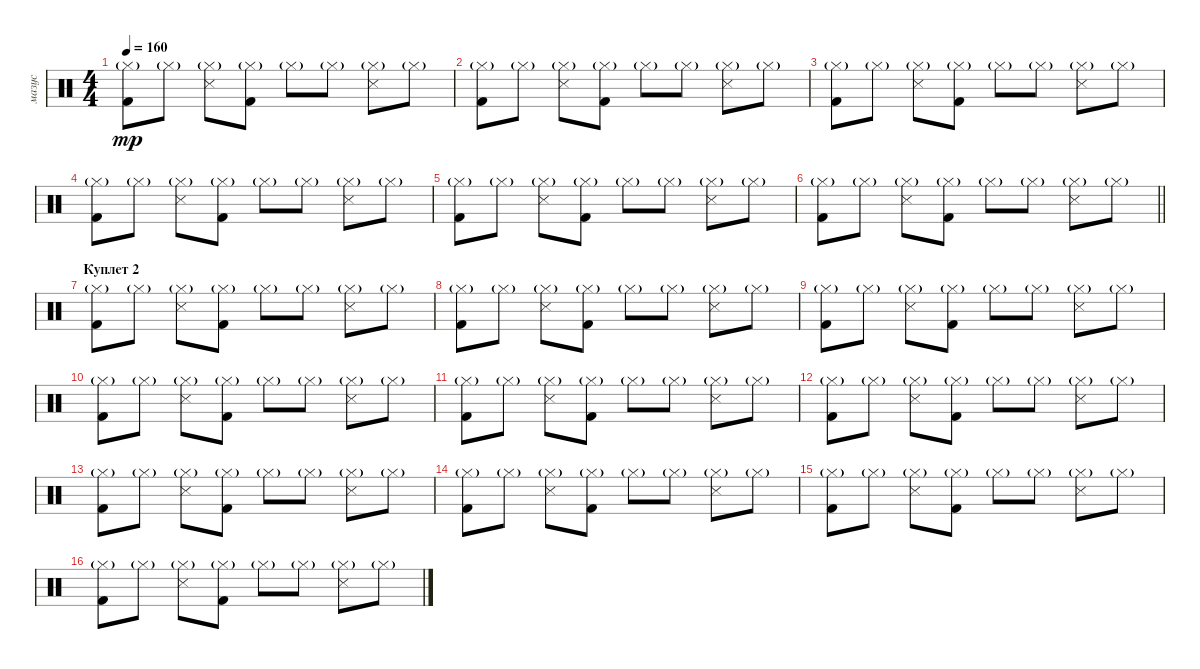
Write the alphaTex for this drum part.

\track ("мазус" "мазус") {instrument percussion}
\staff {score}
\articulation defaults
\ts (4 4)
\tempo 160
\clef neutral
\ks c
("Kick (hit) 2" "Hi-Hat (closed)"{g}).8{dy mp} "Hi-Hat (closed)"{g}.8 ("Snare (side stick) 3" "Hi-Hat (closed)"{g}).8 ("Kick (hit) 2" "Hi-Hat (closed)"{g}).8 "Hi-Hat (closed)"{g}.8 "Hi-Hat (closed)"{g}.8 ("Snare (side stick) 3" "Hi-Hat (closed)"{g}).8 "Hi-Hat (closed)"{g}.8 |
("Kick (hit) 2" "Hi-Hat (closed)"{g}).8 "Hi-Hat (closed)"{g}.8 ("Snare (side stick) 3" "Hi-Hat (closed)"{g}).8 ("Kick (hit) 2" "Hi-Hat (closed)"{g}).8 "Hi-Hat (closed)"{g}.8 "Hi-Hat (closed)"{g}.8 ("Snare (side stick) 3" "Hi-Hat (closed)"{g}).8 "Hi-Hat (closed)"{g}.8 |
("Kick (hit) 2" "Hi-Hat (closed)"{g}).8 "Hi-Hat (closed)"{g}.8 ("Snare (side stick) 3" "Hi-Hat (closed)"{g}).8 ("Kick (hit) 2" "Hi-Hat (closed)"{g}).8 "Hi-Hat (closed)"{g}.8 "Hi-Hat (closed)"{g}.8 ("Snare (side stick) 3" "Hi-Hat (closed)"{g}).8 "Hi-Hat (closed)"{g}.8 |
("Kick (hit) 2" "Hi-Hat (closed)"{g}).8 "Hi-Hat (closed)"{g}.8 ("Snare (side stick) 3" "Hi-Hat (closed)"{g}).8 ("Kick (hit) 2" "Hi-Hat (closed)"{g}).8 "Hi-Hat (closed)"{g}.8 "Hi-Hat (closed)"{g}.8 ("Snare (side stick) 3" "Hi-Hat (closed)"{g}).8 "Hi-Hat (closed)"{g}.8 |
("Kick (hit) 2" "Hi-Hat (closed)"{g}).8 "Hi-Hat (closed)"{g}.8 ("Snare (side stick) 3" "Hi-Hat (closed)"{g}).8 ("Kick (hit) 2" "Hi-Hat (closed)"{g}).8 "Hi-Hat (closed)"{g}.8 "Hi-Hat (closed)"{g}.8 ("Snare (side stick) 3" "Hi-Hat (closed)"{g}).8 "Hi-Hat (closed)"{g}.8 |
\barLineRight lightlight
("Kick (hit) 2" "Hi-Hat (closed)"{g}).8 "Hi-Hat (closed)"{g}.8 ("Snare (side stick) 3" "Hi-Hat (closed)"{g}).8 ("Kick (hit) 2" "Hi-Hat (closed)"{g}).8 "Hi-Hat (closed)"{g}.8 "Hi-Hat (closed)"{g}.8 ("Snare (side stick) 3" "Hi-Hat (closed)"{g}).8 "Hi-Hat (closed)"{g}.8 |
\section ("" "Куплет 2")
("Kick (hit) 2" "Hi-Hat (closed)"{g}).8 "Hi-Hat (closed)"{g}.8 ("Snare (side stick) 3" "Hi-Hat (closed)"{g}).8 ("Kick (hit) 2" "Hi-Hat (closed)"{g}).8 "Hi-Hat (closed)"{g}.8 "Hi-Hat (closed)"{g}.8 ("Snare (side stick) 3" "Hi-Hat (closed)"{g}).8 "Hi-Hat (closed)"{g}.8 |
("Kick (hit) 2" "Hi-Hat (closed)"{g}).8 "Hi-Hat (closed)"{g}.8 ("Snare (side stick) 3" "Hi-Hat (closed)"{g}).8 ("Kick (hit) 2" "Hi-Hat (closed)"{g}).8 "Hi-Hat (closed)"{g}.8 "Hi-Hat (closed)"{g}.8 ("Snare (side stick) 3" "Hi-Hat (closed)"{g}).8 "Hi-Hat (closed)"{g}.8 |
("Kick (hit) 2" "Hi-Hat (closed)"{g}).8 "Hi-Hat (closed)"{g}.8 ("Snare (side stick) 3" "Hi-Hat (closed)"{g}).8 ("Kick (hit) 2" "Hi-Hat (closed)"{g}).8 "Hi-Hat (closed)"{g}.8 "Hi-Hat (closed)"{g}.8 ("Snare (side stick) 3" "Hi-Hat (closed)"{g}).8 "Hi-Hat (closed)"{g}.8 |
("Kick (hit) 2" "Hi-Hat (closed)"{g}).8 "Hi-Hat (closed)"{g}.8 ("Snare (side stick) 3" "Hi-Hat (closed)"{g}).8 ("Kick (hit) 2" "Hi-Hat (closed)"{g}).8 "Hi-Hat (closed)"{g}.8 "Hi-Hat (closed)"{g}.8 ("Snare (side stick) 3" "Hi-Hat (closed)"{g}).8 "Hi-Hat (closed)"{g}.8 |
("Kick (hit) 2" "Hi-Hat (closed)"{g}).8 "Hi-Hat (closed)"{g}.8 ("Snare (side stick) 3" "Hi-Hat (closed)"{g}).8 ("Kick (hit) 2" "Hi-Hat (closed)"{g}).8 "Hi-Hat (closed)"{g}.8 "Hi-Hat (closed)"{g}.8 ("Snare (side stick) 3" "Hi-Hat (closed)"{g}).8 "Hi-Hat (closed)"{g}.8 |
("Kick (hit) 2" "Hi-Hat (closed)"{g}).8 "Hi-Hat (closed)"{g}.8 ("Snare (side stick) 3" "Hi-Hat (closed)"{g}).8 ("Kick (hit) 2" "Hi-Hat (closed)"{g}).8 "Hi-Hat (closed)"{g}.8 "Hi-Hat (closed)"{g}.8 ("Snare (side stick) 3" "Hi-Hat (closed)"{g}).8 "Hi-Hat (closed)"{g}.8 |
("Kick (hit) 2" "Hi-Hat (closed)"{g}).8 "Hi-Hat (closed)"{g}.8 ("Snare (side stick) 3" "Hi-Hat (closed)"{g}).8 ("Kick (hit) 2" "Hi-Hat (closed)"{g}).8 "Hi-Hat (closed)"{g}.8 "Hi-Hat (closed)"{g}.8 ("Snare (side stick) 3" "Hi-Hat (closed)"{g}).8 "Hi-Hat (closed)"{g}.8 |
("Kick (hit) 2" "Hi-Hat (closed)"{g}).8 "Hi-Hat (closed)"{g}.8 ("Snare (side stick) 3" "Hi-Hat (closed)"{g}).8 ("Kick (hit) 2" "Hi-Hat (closed)"{g}).8 "Hi-Hat (closed)"{g}.8 "Hi-Hat (closed)"{g}.8 ("Snare (side stick) 3" "Hi-Hat (closed)"{g}).8 "Hi-Hat (closed)"{g}.8 |
("Kick (hit) 2" "Hi-Hat (closed)"{g}).8 "Hi-Hat (closed)"{g}.8 ("Snare (side stick) 3" "Hi-Hat (closed)"{g}).8 ("Kick (hit) 2" "Hi-Hat (closed)"{g}).8 "Hi-Hat (closed)"{g}.8 "Hi-Hat (closed)"{g}.8 ("Snare (side stick) 3" "Hi-Hat (closed)"{g}).8 "Hi-Hat (closed)"{g}.8 |
("Kick (hit) 2" "Hi-Hat (closed)"{g}).8 "Hi-Hat (closed)"{g}.8 ("Snare (side stick) 3" "Hi-Hat (closed)"{g}).8 ("Kick (hit) 2" "Hi-Hat (closed)"{g}).8 "Hi-Hat (closed)"{g}.8 "Hi-Hat (closed)"{g}.8 ("Snare (side stick) 3" "Hi-Hat (closed)"{g}).8 "Hi-Hat (closed)"{g}.8
